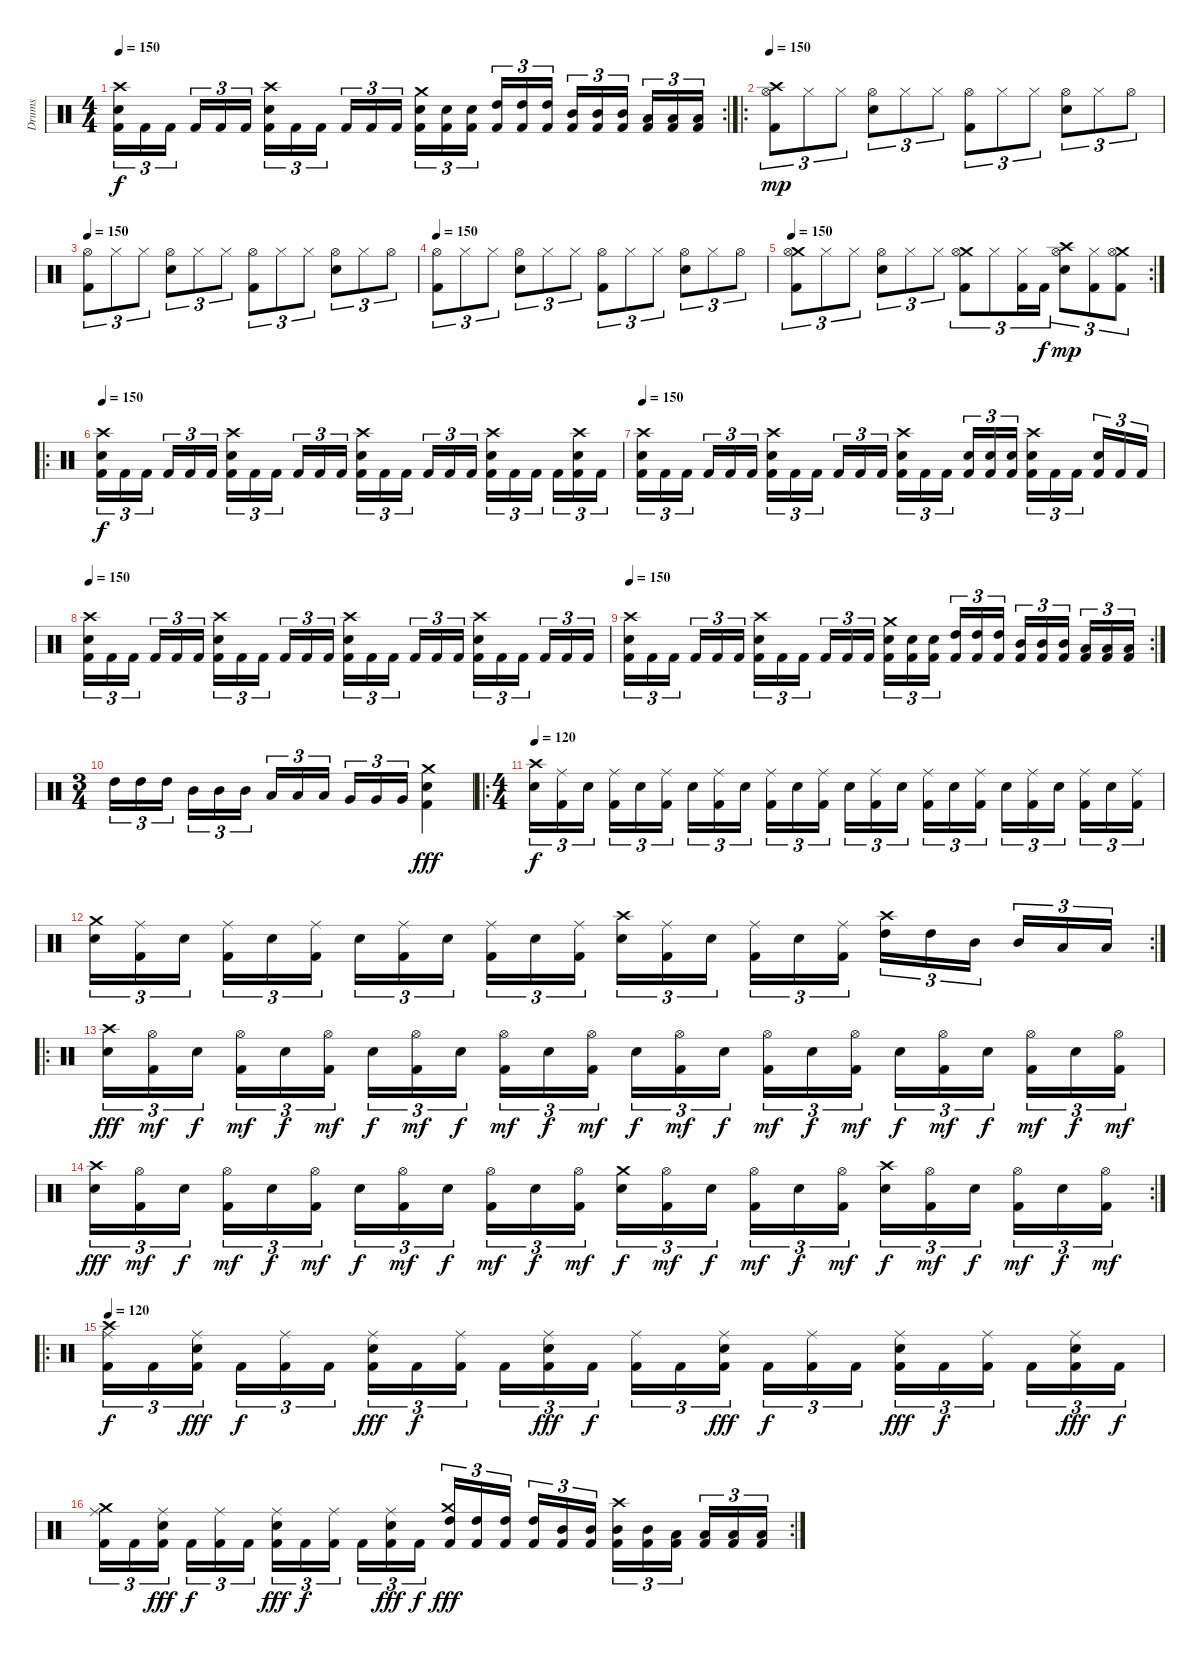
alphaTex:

\track ("Drums" "Drums") {instrument percussion}
\staff {score}
\articulation defaults
\rc 2
\ts (4 4)
\tempo 150
\clef neutral
\ks c
("Crash high (hit)" "Electric Snare (hit)" "Kick (hit) 2").16{tu (3 2) dy f} "Kick (hit) 2".16{tu (3 2)} "Kick (hit) 2".16{tu (3 2)} "Kick (hit) 2".16{tu (3 2)} "Kick (hit) 2".16{tu (3 2)} "Kick (hit) 2".16{tu (3 2)} ("Crash high (hit)" "Electric Snare (hit)" "Kick (hit) 2").16{tu (3 2)} "Kick (hit) 2".16{tu (3 2)} "Kick (hit) 2".16{tu (3 2)} "Kick (hit) 2".16{tu (3 2)} "Kick (hit) 2".16{tu (3 2)} "Kick (hit) 2".16{tu (3 2)} ("Crash medium (hit)" "Electric Snare (hit)" "Kick (hit) 2").16{tu (3 2)} ("Electric Snare (hit)" "Kick (hit) 2").16{tu (3 2)} ("Electric Snare (hit)" "Kick (hit) 2").16{tu (3 2)} ("High Tom (hit)" "Kick (hit) 2").16{tu (3 2)} ("High Tom (hit)" "Kick (hit) 2").16{tu (3 2)} ("High Tom (hit)" "Kick (hit) 2").16{tu (3 2)} ("Mid Tom (hit)" "Kick (hit) 2").16{tu (3 2)} ("Mid Tom (hit)" "Kick (hit) 2").16{tu (3 2)} ("Mid Tom (hit)" "Kick (hit) 2").16{tu (3 2)} ("Low Tom (hit)" "Kick (hit) 2").16{tu (3 2)} ("Low Tom (hit)" "Kick (hit) 2").16{tu (3 2)} ("Low Tom (hit)" "Kick (hit) 2").16{tu (3 2)} |
\ro
\tempo 150
("Crash high (hit)" "Hi-Hat (open)" "Kick (hit) 2").8{tu (3 2) dy mp} "Hi-Hat (closed)".8{tu (3 2)} "Hi-Hat (closed)".8{tu (3 2)} ("Hi-Hat (open)" "Electric Snare (hit)").8{tu (3 2)} "Hi-Hat (closed)".8{tu (3 2)} "Hi-Hat (closed)".8{tu (3 2)} ("Hi-Hat (open)" "Kick (hit) 2").8{tu (3 2)} "Hi-Hat (closed)".8{tu (3 2)} "Hi-Hat (closed)".8{tu (3 2)} ("Hi-Hat (open)" "Electric Snare (hit)").8{tu (3 2)} "Hi-Hat (closed)".8{tu (3 2)} "Hi-Hat (open)".8{tu (3 2)} |
\tempo 150
("Hi-Hat (open)" "Kick (hit) 2").8{tu (3 2)} "Hi-Hat (closed)".8{tu (3 2)} "Hi-Hat (closed)".8{tu (3 2)} ("Hi-Hat (open)" "Electric Snare (hit)").8{tu (3 2)} "Hi-Hat (closed)".8{tu (3 2)} "Hi-Hat (closed)".8{tu (3 2)} ("Hi-Hat (open)" "Kick (hit) 2").8{tu (3 2)} "Hi-Hat (closed)".8{tu (3 2)} "Hi-Hat (closed)".8{tu (3 2)} ("Hi-Hat (open)" "Electric Snare (hit)").8{tu (3 2)} "Hi-Hat (closed)".8{tu (3 2)} "Hi-Hat (open)".8{tu (3 2)} |
\tempo 150
("Hi-Hat (open)" "Kick (hit) 2").8{tu (3 2)} "Hi-Hat (closed)".8{tu (3 2)} "Hi-Hat (closed)".8{tu (3 2)} ("Hi-Hat (open)" "Electric Snare (hit)").8{tu (3 2)} "Hi-Hat (closed)".8{tu (3 2)} "Hi-Hat (closed)".8{tu (3 2)} ("Hi-Hat (open)" "Kick (hit) 2").8{tu (3 2)} "Hi-Hat (closed)".8{tu (3 2)} "Hi-Hat (closed)".8{tu (3 2)} ("Hi-Hat (open)" "Electric Snare (hit)").8{tu (3 2)} "Hi-Hat (closed)".8{tu (3 2)} "Hi-Hat (open)".8{tu (3 2)} |
\rc 2
\tempo 150
("Crash medium (hit)" "Hi-Hat (open)" "Kick (hit) 2").8{tu (3 2)} "Hi-Hat (closed)".8{tu (3 2)} "Hi-Hat (closed)".8{tu (3 2)} ("Hi-Hat (open)" "Electric Snare (hit)").8{tu (3 2)} "Hi-Hat (closed)".8{tu (3 2)} "Hi-Hat (closed)".8{tu (3 2)} ("Crash medium (hit)" "Hi-Hat (open)" "Kick (hit) 2").8{tu (3 2)} "Hi-Hat (closed)".8{tu (3 2)} ("Hi-Hat (closed)" "Kick (hit) 2").16{tu (3 2)} "Kick (hit) 2".16{tu (3 2) dy f} ("Crash high (hit)" "Hi-Hat (open)" "Electric Snare (hit)").8{tu (3 2) dy mp} ("Hi-Hat (closed)" "Kick (hit) 2").8{tu (3 2)} ("Crash medium (hit)" "Hi-Hat (open)" "Kick (hit) 2").8{tu (3 2)} |
\ro
\tempo 150
("Crash high (hit)" "Electric Snare (hit)" "Kick (hit) 2").16{tu (3 2) dy f} "Kick (hit) 2".16{tu (3 2)} "Kick (hit) 2".16{tu (3 2)} "Kick (hit) 2".16{tu (3 2)} "Kick (hit) 2".16{tu (3 2)} "Kick (hit) 2".16{tu (3 2)} ("Crash high (hit)" "Electric Snare (hit)" "Kick (hit) 2").16{tu (3 2)} "Kick (hit) 2".16{tu (3 2)} "Kick (hit) 2".16{tu (3 2)} "Kick (hit) 2".16{tu (3 2)} "Kick (hit) 2".16{tu (3 2)} "Kick (hit) 2".16{tu (3 2)} ("Crash high (hit)" "Electric Snare (hit)" "Kick (hit) 2").16{tu (3 2)} "Kick (hit) 2".16{tu (3 2)} "Kick (hit) 2".16{tu (3 2)} "Kick (hit) 2".16{tu (3 2)} "Kick (hit) 2".16{tu (3 2)} "Kick (hit) 2".16{tu (3 2)} ("Crash high (hit)" "Electric Snare (hit)" "Kick (hit) 2").16{tu (3 2)} "Kick (hit) 2".16{tu (3 2)} "Kick (hit) 2".16{tu (3 2)} "Kick (hit) 2".16{tu (3 2)} ("Crash high (hit)" "Electric Snare (hit)" "Kick (hit) 2").16{tu (3 2)} "Kick (hit) 2".16{tu (3 2)} |
\tempo 150
("Crash high (hit)" "Electric Snare (hit)" "Kick (hit) 2").16{tu (3 2)} "Kick (hit) 2".16{tu (3 2)} "Kick (hit) 2".16{tu (3 2)} "Kick (hit) 2".16{tu (3 2)} "Kick (hit) 2".16{tu (3 2)} "Kick (hit) 2".16{tu (3 2)} ("Crash high (hit)" "Electric Snare (hit)" "Kick (hit) 2").16{tu (3 2)} "Kick (hit) 2".16{tu (3 2)} "Kick (hit) 2".16{tu (3 2)} "Kick (hit) 2".16{tu (3 2)} "Kick (hit) 2".16{tu (3 2)} "Kick (hit) 2".16{tu (3 2)} ("Crash high (hit)" "Electric Snare (hit)" "Kick (hit) 2").16{tu (3 2)} "Kick (hit) 2".16{tu (3 2)} "Kick (hit) 2".16{tu (3 2)} ("Electric Snare (hit)" "Kick (hit) 2").16{tu (3 2)} ("Electric Snare (hit)" "Kick (hit) 2").16{tu (3 2)} ("Electric Snare (hit)" "Kick (hit) 2").16{tu (3 2)} ("Crash high (hit)" "Electric Snare (hit)" "Kick (hit) 2").16{tu (3 2)} "Kick (hit) 2".16{tu (3 2)} "Kick (hit) 2".16{tu (3 2)} ("Electric Snare (hit)" "Kick (hit) 2").16{tu (3 2)} "Kick (hit) 2".16{tu (3 2)} "Kick (hit) 2".16{tu (3 2)} |
\tempo 150
("Crash high (hit)" "Electric Snare (hit)" "Kick (hit) 2").16{tu (3 2)} "Kick (hit) 2".16{tu (3 2)} "Kick (hit) 2".16{tu (3 2)} "Kick (hit) 2".16{tu (3 2)} "Kick (hit) 2".16{tu (3 2)} "Kick (hit) 2".16{tu (3 2)} ("Crash high (hit)" "Electric Snare (hit)" "Kick (hit) 2").16{tu (3 2)} "Kick (hit) 2".16{tu (3 2)} "Kick (hit) 2".16{tu (3 2)} "Kick (hit) 2".16{tu (3 2)} "Kick (hit) 2".16{tu (3 2)} "Kick (hit) 2".16{tu (3 2)} ("Crash high (hit)" "Electric Snare (hit)" "Kick (hit) 2").16{tu (3 2)} "Kick (hit) 2".16{tu (3 2)} "Kick (hit) 2".16{tu (3 2)} "Kick (hit) 2".16{tu (3 2)} "Kick (hit) 2".16{tu (3 2)} "Kick (hit) 2".16{tu (3 2)} ("Crash high (hit)" "Electric Snare (hit)" "Kick (hit) 2").16{tu (3 2)} "Kick (hit) 2".16{tu (3 2)} "Kick (hit) 2".16{tu (3 2)} "Kick (hit) 2".16{tu (3 2)} "Kick (hit) 2".16{tu (3 2)} "Kick (hit) 2".16{tu (3 2)} |
\rc 2
\tempo 150
("Crash high (hit)" "Electric Snare (hit)" "Kick (hit) 2").16{tu (3 2)} "Kick (hit) 2".16{tu (3 2)} "Kick (hit) 2".16{tu (3 2)} "Kick (hit) 2".16{tu (3 2)} "Kick (hit) 2".16{tu (3 2)} "Kick (hit) 2".16{tu (3 2)} ("Crash high (hit)" "Electric Snare (hit)" "Kick (hit) 2").16{tu (3 2)} "Kick (hit) 2".16{tu (3 2)} "Kick (hit) 2".16{tu (3 2)} "Kick (hit) 2".16{tu (3 2)} "Kick (hit) 2".16{tu (3 2)} "Kick (hit) 2".16{tu (3 2)} ("Crash medium (hit)" "Electric Snare (hit)" "Kick (hit) 2").16{tu (3 2)} ("Electric Snare (hit)" "Kick (hit) 2").16{tu (3 2)} ("Electric Snare (hit)" "Kick (hit) 2").16{tu (3 2)} ("High Tom (hit)" "Kick (hit) 2").16{tu (3 2)} ("High Tom (hit)" "Kick (hit) 2").16{tu (3 2)} ("High Tom (hit)" "Kick (hit) 2").16{tu (3 2)} ("Mid Tom (hit)" "Kick (hit) 2").16{tu (3 2)} ("Mid Tom (hit)" "Kick (hit) 2").16{tu (3 2)} ("Mid Tom (hit)" "Kick (hit) 2").16{tu (3 2)} ("Low Tom (hit)" "Kick (hit) 2").16{tu (3 2)} ("Low Tom (hit)" "Kick (hit) 2").16{tu (3 2)} ("Low Tom (hit)" "Kick (hit) 2").16{tu (3 2)} |
\ts (3 4)
"High Tom (hit)".16{tu (3 2)} "High Tom (hit)".16{tu (3 2)} "High Tom (hit)".16{tu (3 2)} "Mid Tom (hit)".16{tu (3 2)} "Mid Tom (hit)".16{tu (3 2)} "Mid Tom (hit)".16{tu (3 2)} "Low Tom (hit)".16{tu (3 2)} "Low Tom (hit)".16{tu (3 2)} "Low Tom (hit)".16{tu (3 2)} "Very Low Tom (hit)".16{tu (3 2)} "Very Low Tom (hit)".16{tu (3 2)} "Very Low Tom (hit)".16{tu (3 2)} ("Crash medium (hit)" "Electric Snare (hit)" "Kick (hit) 2").4{dy fff} |
\ro
\ts (4 4)
\tempo 120
("Crash high (hit)" "Electric Snare (hit)").16{tu (3 2) dy f} ("Ride (middle)" "Kick (hit) 2").16{tu (3 2)} "Electric Snare (hit)".16{tu (3 2)} ("Ride (middle)" "Kick (hit) 2").16{tu (3 2)} "Electric Snare (hit)".16{tu (3 2)} ("Ride (middle)" "Kick (hit) 2").16{tu (3 2)} "Electric Snare (hit)".16{tu (3 2)} ("Ride (middle)" "Kick (hit) 2").16{tu (3 2)} "Electric Snare (hit)".16{tu (3 2)} ("Ride (middle)" "Kick (hit) 2").16{tu (3 2)} "Electric Snare (hit)".16{tu (3 2)} ("Ride (middle)" "Kick (hit) 2").16{tu (3 2)} "Electric Snare (hit)".16{tu (3 2)} ("Ride (middle)" "Kick (hit) 2").16{tu (3 2)} "Electric Snare (hit)".16{tu (3 2)} ("Ride (middle)" "Kick (hit) 2").16{tu (3 2)} "Electric Snare (hit)".16{tu (3 2)} ("Ride (middle)" "Kick (hit) 2").16{tu (3 2)} "Electric Snare (hit)".16{tu (3 2)} ("Ride (middle)" "Kick (hit) 2").16{tu (3 2)} "Electric Snare (hit)".16{tu (3 2)} ("Ride (middle)" "Kick (hit) 2").16{tu (3 2)} "Electric Snare (hit)".16{tu (3 2)} ("Ride (middle)" "Kick (hit) 2").16{tu (3 2)} |
\rc 2
("Crash medium (hit)" "Electric Snare (hit)").16{tu (3 2)} ("Ride (middle)" "Kick (hit) 2").16{tu (3 2)} "Electric Snare (hit)".16{tu (3 2)} ("Ride (middle)" "Kick (hit) 2").16{tu (3 2)} "Electric Snare (hit)".16{tu (3 2)} ("Ride (middle)" "Kick (hit) 2").16{tu (3 2)} "Electric Snare (hit)".16{tu (3 2)} ("Ride (middle)" "Kick (hit) 2").16{tu (3 2)} "Electric Snare (hit)".16{tu (3 2)} ("Ride (middle)" "Kick (hit) 2").16{tu (3 2)} "Electric Snare (hit)".16{tu (3 2)} ("Ride (middle)" "Kick (hit) 2").16{tu (3 2)} ("Crash high (hit)" "Electric Snare (hit)").16{tu (3 2)} ("Ride (middle)" "Kick (hit) 2").16{tu (3 2)} "Electric Snare (hit)".16{tu (3 2)} ("Ride (middle)" "Kick (hit) 2").16{tu (3 2)} "Electric Snare (hit)".16{tu (3 2)} ("Ride (middle)" "Kick (hit) 2").16{tu (3 2)} ("Crash high (hit)" "High Tom (hit)").16{tu (3 2)} "High Tom (hit)".16{tu (3 2)} "Mid Tom (hit)".16{tu (3 2)} "Mid Tom (hit)".16{tu (3 2)} "Low Tom (hit)".16{tu (3 2)} "Low Tom (hit)".16{tu (3 2)} |
\ro
("Crash high (hit)" "Electric Snare (hit)").16{tu (3 2) dy fff} ("Hi-Hat (open)" "Kick (hit) 2").16{tu (3 2) dy mf} "Electric Snare (hit)".16{tu (3 2) dy f} ("Hi-Hat (open)" "Kick (hit) 2").16{tu (3 2) dy mf} "Electric Snare (hit)".16{tu (3 2) dy f} ("Hi-Hat (open)" "Kick (hit) 2").16{tu (3 2) dy mf} "Electric Snare (hit)".16{tu (3 2) dy f} ("Hi-Hat (open)" "Kick (hit) 2").16{tu (3 2) dy mf} "Electric Snare (hit)".16{tu (3 2) dy f} ("Hi-Hat (open)" "Kick (hit) 2").16{tu (3 2) dy mf} "Electric Snare (hit)".16{tu (3 2) dy f} ("Hi-Hat (open)" "Kick (hit) 2").16{tu (3 2) dy mf} "Electric Snare (hit)".16{tu (3 2) dy f} ("Hi-Hat (open)" "Kick (hit) 2").16{tu (3 2) dy mf} "Electric Snare (hit)".16{tu (3 2) dy f} ("Hi-Hat (open)" "Kick (hit) 2").16{tu (3 2) dy mf} "Electric Snare (hit)".16{tu (3 2) dy f} ("Hi-Hat (open)" "Kick (hit) 2").16{tu (3 2) dy mf} "Electric Snare (hit)".16{tu (3 2) dy f} ("Hi-Hat (open)" "Kick (hit) 2").16{tu (3 2) dy mf} "Electric Snare (hit)".16{tu (3 2) dy f} ("Hi-Hat (open)" "Kick (hit) 2").16{tu (3 2) dy mf} "Electric Snare (hit)".16{tu (3 2) dy f} ("Hi-Hat (open)" "Kick (hit) 2").16{tu (3 2) dy mf} |
\rc 2
("Crash high (hit)" "Electric Snare (hit)").16{tu (3 2) dy fff} ("Hi-Hat (open)" "Kick (hit) 2").16{tu (3 2) dy mf} "Electric Snare (hit)".16{tu (3 2) dy f} ("Hi-Hat (open)" "Kick (hit) 2").16{tu (3 2) dy mf} "Electric Snare (hit)".16{tu (3 2) dy f} ("Hi-Hat (open)" "Kick (hit) 2").16{tu (3 2) dy mf} "Electric Snare (hit)".16{tu (3 2) dy f} ("Hi-Hat (open)" "Kick (hit) 2").16{tu (3 2) dy mf} "Electric Snare (hit)".16{tu (3 2) dy f} ("Hi-Hat (open)" "Kick (hit) 2").16{tu (3 2) dy mf} "Electric Snare (hit)".16{tu (3 2) dy f} ("Hi-Hat (open)" "Kick (hit) 2").16{tu (3 2) dy mf} ("Crash medium (hit)" "Electric Snare (hit)").16{tu (3 2) dy f} ("Hi-Hat (open)" "Kick (hit) 2").16{tu (3 2) dy mf} "Electric Snare (hit)".16{tu (3 2) dy f} ("Hi-Hat (open)" "Kick (hit) 2").16{tu (3 2) dy mf} "Electric Snare (hit)".16{tu (3 2) dy f} ("Hi-Hat (open)" "Kick (hit) 2").16{tu (3 2) dy mf} ("Crash high (hit)" "Electric Snare (hit)").16{tu (3 2) dy f} ("Hi-Hat (open)" "Kick (hit) 2").16{tu (3 2) dy mf} "Electric Snare (hit)".16{tu (3 2) dy f} ("Hi-Hat (open)" "Kick (hit) 2").16{tu (3 2) dy mf} "Electric Snare (hit)".16{tu (3 2) dy f} ("Hi-Hat (open)" "Kick (hit) 2").16{tu (3 2) dy mf} |
\ro
\tempo 120
("Crash high (hit)" "Ride (middle)" "Kick (hit) 2").16{tu (3 2) dy f} "Kick (hit) 2".16{tu (3 2)} ("Ride (middle)" "Electric Snare (hit)" "Kick (hit) 2").16{tu (3 2) dy fff} "Kick (hit) 2".16{tu (3 2) dy f} ("Ride (middle)" "Kick (hit) 2").16{tu (3 2)} "Kick (hit) 2".16{tu (3 2)} ("Ride (middle)" "Electric Snare (hit)" "Kick (hit) 2").16{tu (3 2) dy fff} "Kick (hit) 2".16{tu (3 2) dy f} ("Ride (middle)" "Kick (hit) 2").16{tu (3 2)} "Kick (hit) 2".16{tu (3 2)} ("Ride (middle)" "Electric Snare (hit)" "Kick (hit) 2").16{tu (3 2) dy fff} "Kick (hit) 2".16{tu (3 2) dy f} ("Ride (middle)" "Kick (hit) 2").16{tu (3 2)} "Kick (hit) 2".16{tu (3 2)} ("Ride (middle)" "Electric Snare (hit)" "Kick (hit) 2").16{tu (3 2) dy fff} "Kick (hit) 2".16{tu (3 2) dy f} ("Ride (middle)" "Kick (hit) 2").16{tu (3 2)} "Kick (hit) 2".16{tu (3 2)} ("Ride (middle)" "Electric Snare (hit)" "Kick (hit) 2").16{tu (3 2) dy fff} "Kick (hit) 2".16{tu (3 2) dy f} ("Ride (middle)" "Kick (hit) 2").16{tu (3 2)} "Kick (hit) 2".16{tu (3 2)} ("Ride (middle)" "Electric Snare (hit)" "Kick (hit) 2").16{tu (3 2) dy fff} "Kick (hit) 2".16{tu (3 2) dy f} |
\rc 2
("Crash medium (hit)" "Ride (middle)" "Kick (hit) 2").16{tu (3 2)} "Kick (hit) 2".16{tu (3 2)} ("Ride (middle)" "Electric Snare (hit)" "Kick (hit) 2").16{tu (3 2) dy fff} "Kick (hit) 2".16{tu (3 2) dy f} ("Ride (middle)" "Kick (hit) 2").16{tu (3 2)} "Kick (hit) 2".16{tu (3 2)} ("Ride (middle)" "Electric Snare (hit)" "Kick (hit) 2").16{tu (3 2) dy fff} "Kick (hit) 2".16{tu (3 2) dy f} ("Ride (middle)" "Kick (hit) 2").16{tu (3 2)} "Kick (hit) 2".16{tu (3 2)} ("Ride (middle)" "Electric Snare (hit)" "Kick (hit) 2").16{tu (3 2) dy fff} "Kick (hit) 2".16{tu (3 2) dy f} ("Crash medium (hit)" "High Tom (hit)" "Kick (hit) 2").16{tu (3 2) dy fff} ("High Tom (hit)" "Kick (hit) 2").16{tu (3 2)} ("High Tom (hit)" "Kick (hit) 2").16{tu (3 2)} ("High Tom (hit)" "Kick (hit) 2").16{tu (3 2)} ("Mid Tom (hit)" "Kick (hit) 2").16{tu (3 2)} ("Mid Tom (hit)" "Kick (hit) 2").16{tu (3 2)} ("Crash high (hit)" "Mid Tom (hit)" "Kick (hit) 2").16{tu (3 2)} ("Mid Tom (hit)" "Kick (hit) 2").16{tu (3 2)} ("Low Tom (hit)" "Kick (hit) 2").16{tu (3 2)} ("Low Tom (hit)" "Kick (hit) 2").16{tu (3 2)} ("Low Tom (hit)" "Kick (hit) 2").16{tu (3 2)} ("Low Tom (hit)" "Kick (hit) 2").16{tu (3 2)}
